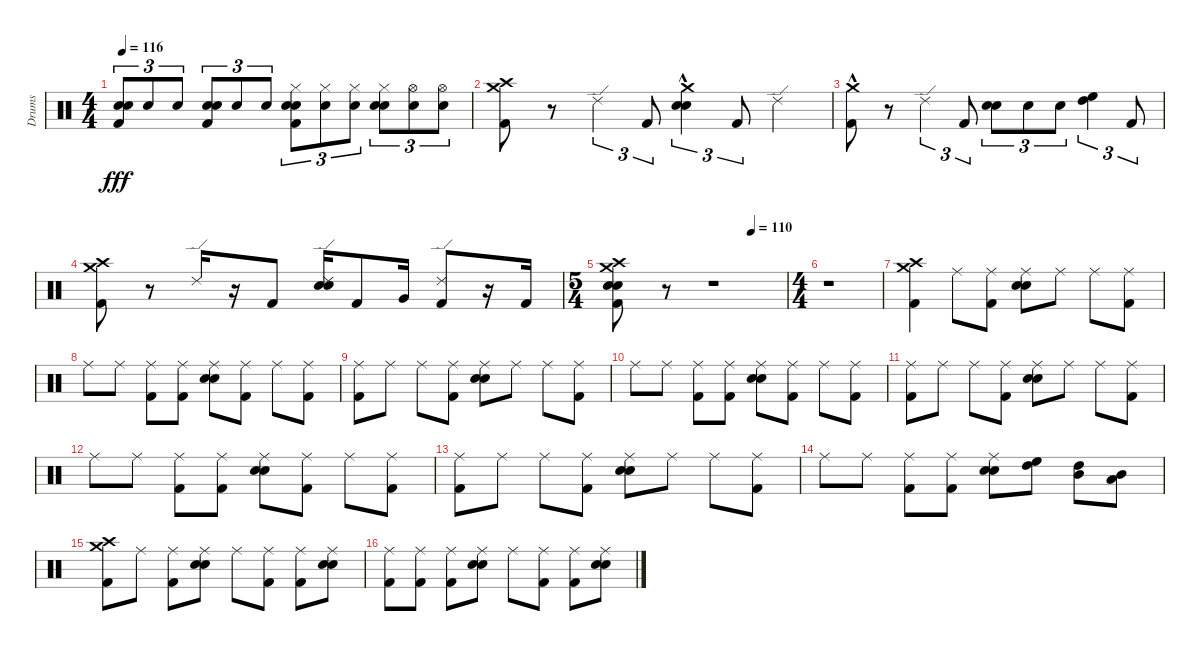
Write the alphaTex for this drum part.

\track ("Drums" "Drums") {instrument percussion}
\staff {score}
\articulation defaults
\ts (4 4)
\tempo 116
\clef neutral
\ks c
("Kick (hit) 2" "Snare (hit) 2" "Electric Snare (hit)").8{tu (3 2) dy fff} "Electric Snare (hit)".8{tu (3 2)} "Electric Snare (hit)".8{tu (3 2)} ("Kick (hit) 2" "Snare (hit) 2" "Electric Snare (hit)").8{tu (3 2)} "Electric Snare (hit)".8{tu (3 2)} "Electric Snare (hit)".8{tu (3 2)} ("Kick (hit) 2" "Snare (hit) 2" "Electric Snare (hit)" "Hi-Hat (closed)").8{tu (3 2)} ("Electric Snare (hit)" "Hi-Hat (closed)").8{tu (3 2)} ("Electric Snare (hit)" "Hi-Hat (closed)").8{tu (3 2)} ("Snare (hit) 2" "Electric Snare (hit)" "Hi-Hat (closed)").8{tu (3 2)} ("Electric Snare (hit)" "Hi-Hat (open)").8{tu (3 2)} ("Electric Snare (hit)" "Hi-Hat (open)").8{tu (3 2)} |
("Kick (hit) 2" "Crash medium (hit)" "Crash high (hit)").8 r.8 "Ride (edge) 2".4{tu (3 2)} "Kick (hit) 2".8{tu (3 2)} ("Snare (hit) 2" "Crash medium (hit)"{hac} "Electric Snare (hit)").4{tu (3 2)} "Kick (hit) 2".8{tu (3 2)} "Ride (edge) 2".4 |
("Crash medium (hit)"{hac} "Kick (hit) 2").8 r.8 "Ride (edge) 2".4{tu (3 2)} "Kick (hit) 2".8{tu (3 2)} ("Snare (hit) 2" "Electric Snare (hit)").8{tu (3 2)} "Electric Snare (hit)".8{tu (3 2)} "Electric Snare (hit)".8{tu (3 2)} ("High Floor Tom (hit)" "High Tom (hit)").4{tu (3 2)} "Kick (hit) 2".8{tu (3 2)} |
("Kick (hit) 2" "Crash medium (hit)" "Crash high (hit)").8 r.8 "Ride (edge) 2".16 r.16 "Kick (hit) 2".8 ("Electric Snare (hit)" "Snare (hit) 2" "Ride (edge) 2").16 "Kick (hit) 2".8 "Very Low Tom (hit)".16 ("Ride (edge) 2" "Kick (hit) 2").8 r.16 "Kick (hit) 2".16 |
\ts (5 4)
\tempo (110 0.8)
("Crash medium (hit)" "Crash high (hit)" "Kick (hit) 2" "Electric Snare (hit)" "Snare (hit) 2").8 r.8 r.1 |
\ts (4 4)
r.1 |
("Kick (hit) 2" "Crash high (hit)" "Crash medium (hit)").4 "Ride (middle)".8 ("Kick (hit) 2" "Ride (middle)").8 ("Ride (middle)" "Snare (hit) 2" "Electric Snare (hit)").8 "Ride (middle)".8 "Ride (middle)".8 ("Ride (middle)" "Kick (hit) 2").8 |
"Ride (middle)".8 "Ride (middle)".8 ("Ride (middle)" "Kick (hit) 2").8 ("Ride (middle)" "Kick (hit) 2").8 ("Ride (middle)" "Snare (hit) 2" "Electric Snare (hit)").8 ("Ride (middle)" "Kick (hit) 2").8 "Ride (middle)".8 ("Ride (middle)" "Kick (hit) 2").8 |
("Kick (hit) 2" "Ride (middle)").8 "Ride (middle)".8 "Ride (middle)".8 ("Kick (hit) 2" "Ride (middle)").8 ("Ride (middle)" "Snare (hit) 2" "Electric Snare (hit)").8 "Ride (middle)".8 "Ride (middle)".8 ("Ride (middle)" "Kick (hit) 2").8 |
"Ride (middle)".8 "Ride (middle)".8 ("Ride (middle)" "Kick (hit) 2").8 ("Ride (middle)" "Kick (hit) 2").8 ("Ride (middle)" "Snare (hit) 2" "Electric Snare (hit)").8 ("Ride (middle)" "Kick (hit) 2").8 "Ride (middle)".8 ("Ride (middle)" "Kick (hit) 2").8 |
("Ride (middle)" "Kick (hit) 2").8 "Ride (middle)".8 "Ride (middle)".8 ("Kick (hit) 2" "Ride (middle)").8 ("Ride (middle)" "Snare (hit) 2" "Electric Snare (hit)").8 "Ride (middle)".8 "Ride (middle)".8 ("Ride (middle)" "Kick (hit) 2").8 |
"Ride (middle)".8 "Ride (middle)".8 ("Ride (middle)" "Kick (hit) 2").8 ("Ride (middle)" "Kick (hit) 2").8 ("Ride (middle)" "Snare (hit) 2" "Electric Snare (hit)").8 ("Ride (middle)" "Kick (hit) 2").8 "Ride (middle)".8 ("Ride (middle)" "Kick (hit) 2").8 |
("Ride (middle)" "Kick (hit) 2").8 "Ride (middle)".8 "Ride (middle)".8 ("Kick (hit) 2" "Ride (middle)").8 ("Ride (middle)" "Snare (hit) 2" "Electric Snare (hit)").8 "Ride (middle)".8 "Ride (middle)".8 ("Ride (middle)" "Kick (hit) 2").8 |
"Ride (middle)".8 "Ride (middle)".8 ("Ride (middle)" "Kick (hit) 2").8 ("Ride (middle)" "Kick (hit) 2").8 ("Ride (middle)" "Snare (hit) 2" "Electric Snare (hit)").8 ("High Tom (hit)" "High Floor Tom (hit)").8 ("Mid Tom (hit)" "High Tom (hit)").8 ("Low Tom (hit)" "Mid Tom (hit)").8 |
("Kick (hit) 2" "Crash high (hit)" "Crash medium (hit)").8 "Ride (middle)".8 ("Kick (hit) 2" "Ride (middle)").8 ("Ride (middle)" "Snare (hit) 2" "Electric Snare (hit)").8 "Ride (middle)".8 ("Ride (middle)" "Kick (hit) 2").8 ("Ride (middle)" "Kick (hit) 2").8 ("Ride (middle)" "Electric Snare (hit)" "Snare (hit) 2").8 |
("Kick (hit) 2" "Ride (middle)").8 ("Kick (hit) 2" "Ride (middle)").8 ("Ride (middle)" "Kick (hit) 2").8 ("Ride (middle)" "Electric Snare (hit)" "Snare (hit) 2").8 "Ride (middle)".8 ("Ride (middle)" "Kick (hit) 2").8 ("Ride (middle)" "Kick (hit) 2").8 ("Ride (middle)" "Electric Snare (hit)" "Snare (hit) 2").8
